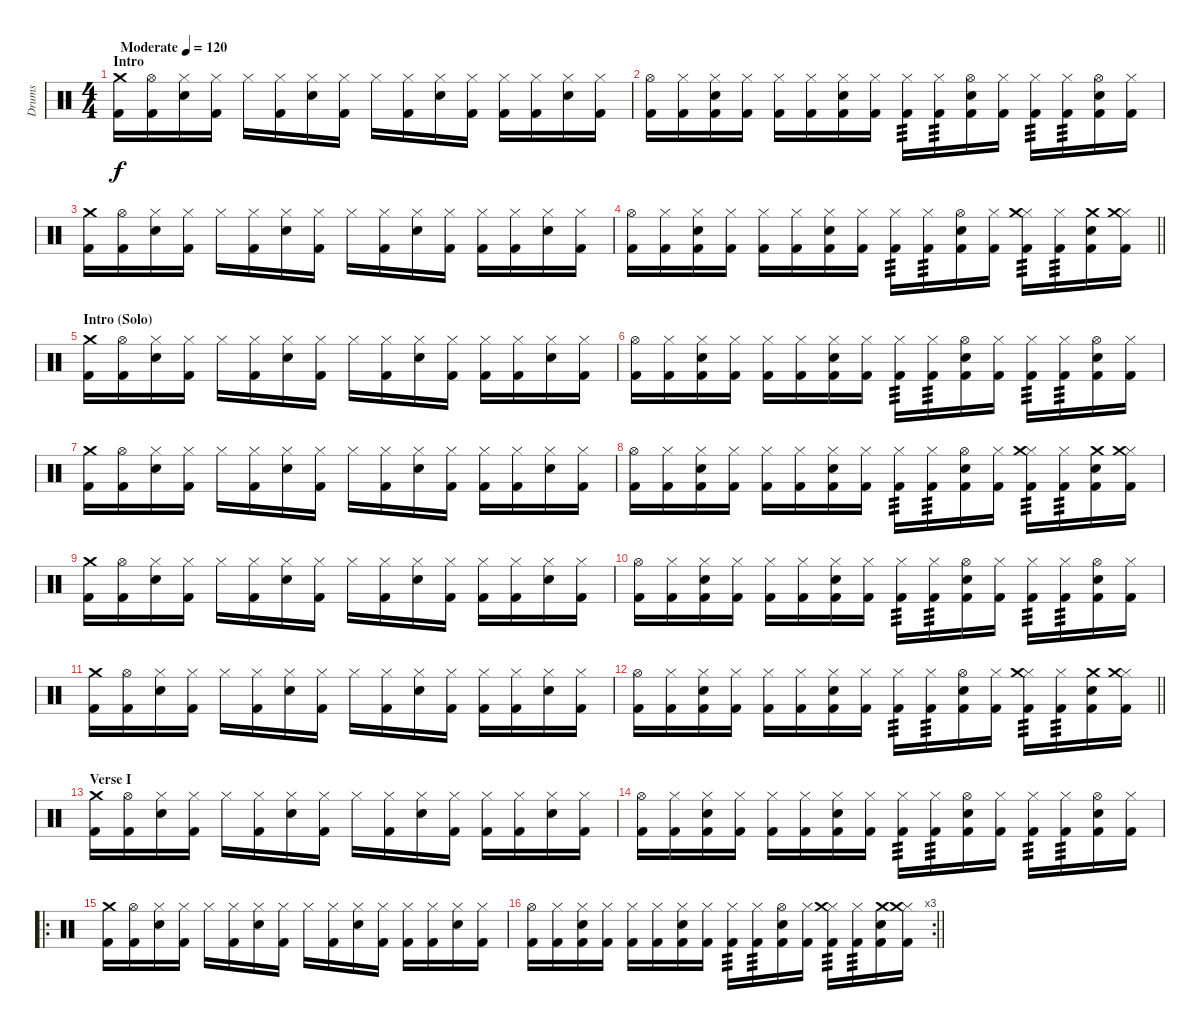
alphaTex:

\track ("Drums" "Drums") {instrument percussion}
\staff {score}
\articulation defaults
\ts (4 4)
\section ("" "Intro")
\tempo (120 "Moderate")
\clef neutral
\ks c
("Kick (hit) 2" "Crash medium (hit)").16{dy f} ("Kick (hit) 2" "Hi-Hat (open)").16 ("Snare (hit) 2" "Hi-Hat (closed)").16 ("Kick (hit) 2" "Hi-Hat (closed)").16 "Hi-Hat (closed)".16 ("Kick (hit) 2" "Hi-Hat (closed)").16 ("Snare (hit) 2" "Hi-Hat (closed)").16 ("Kick (hit) 2" "Hi-Hat (closed)").16 "Hi-Hat (closed)".16 ("Kick (hit) 2" "Hi-Hat (closed)").16 ("Snare (hit) 2" "Hi-Hat (closed)").16 ("Kick (hit) 2" "Hi-Hat (closed)").16 ("Kick (hit) 2" "Hi-Hat (closed)").16 ("Kick (hit) 2" "Hi-Hat (closed)").16 ("Snare (hit) 2" "Hi-Hat (closed)").16 ("Kick (hit) 2" "Hi-Hat (closed)").16 |
("Kick (hit) 2" "Hi-Hat (open)").16 ("Kick (hit) 2" "Hi-Hat (closed)").16 ("Kick (hit) 2" "Snare (hit) 2" "Hi-Hat (closed)").16 ("Kick (hit) 2" "Hi-Hat (closed)").16 ("Kick (hit) 2" "Hi-Hat (closed)").16 ("Kick (hit) 2" "Hi-Hat (closed)").16 ("Kick (hit) 2" "Snare (hit) 2" "Hi-Hat (closed)").16 ("Kick (hit) 2" "Hi-Hat (closed)").16 ("Kick (hit) 2" "Hi-Hat (closed)").16{tp 3} ("Kick (hit) 2" "Hi-Hat (closed)").16{tp 3} ("Kick (hit) 2" "Snare (hit) 2" "Hi-Hat (open)").16 ("Kick (hit) 2" "Hi-Hat (closed)").16 ("Kick (hit) 2" "Hi-Hat (closed)").16{tp 3} ("Kick (hit) 2" "Hi-Hat (closed)").16{tp 3} ("Kick (hit) 2" "Snare (hit) 2" "Hi-Hat (open)").16 ("Kick (hit) 2" "Hi-Hat (closed)").16 |
("Kick (hit) 2" "Crash medium (hit)").16 ("Kick (hit) 2" "Hi-Hat (open)").16 ("Snare (hit) 2" "Hi-Hat (closed)").16 ("Kick (hit) 2" "Hi-Hat (closed)").16 "Hi-Hat (closed)".16 ("Kick (hit) 2" "Hi-Hat (closed)").16 ("Snare (hit) 2" "Hi-Hat (closed)").16 ("Kick (hit) 2" "Hi-Hat (closed)").16 "Hi-Hat (closed)".16 ("Kick (hit) 2" "Hi-Hat (closed)").16 ("Snare (hit) 2" "Hi-Hat (closed)").16 ("Kick (hit) 2" "Hi-Hat (closed)").16 ("Kick (hit) 2" "Hi-Hat (closed)").16 ("Kick (hit) 2" "Hi-Hat (closed)").16 ("Snare (hit) 2" "Hi-Hat (closed)").16 ("Kick (hit) 2" "Hi-Hat (closed)").16 |
\barLineRight lightlight
("Kick (hit) 2" "Hi-Hat (open)").16 ("Kick (hit) 2" "Hi-Hat (closed)").16 ("Kick (hit) 2" "Snare (hit) 2" "Hi-Hat (closed)").16 ("Kick (hit) 2" "Hi-Hat (closed)").16 ("Kick (hit) 2" "Hi-Hat (closed)").16 ("Kick (hit) 2" "Hi-Hat (closed)").16 ("Kick (hit) 2" "Snare (hit) 2" "Hi-Hat (closed)").16 ("Kick (hit) 2" "Hi-Hat (closed)").16 ("Kick (hit) 2" "Hi-Hat (closed)").16{tp 3} ("Kick (hit) 2" "Hi-Hat (closed)").16{tp 3} ("Kick (hit) 2" "Snare (hit) 2" "Hi-Hat (open)").16 ("Kick (hit) 2" "Hi-Hat (closed)").16 ("Kick (hit) 2" "Hi-Hat (closed)" "Crash medium (hit)").16{tp 3} ("Kick (hit) 2" "Hi-Hat (closed)").16{tp 3} ("Kick (hit) 2" "Snare (hit) 2" "Crash medium (hit)").16 ("Kick (hit) 2" "Hi-Hat (closed)" "Crash medium (hit)").16 |
\section ("" "Intro (Solo)")
("Kick (hit) 2" "Crash medium (hit)").16 ("Kick (hit) 2" "Hi-Hat (open)").16 ("Snare (hit) 2" "Hi-Hat (closed)").16 ("Kick (hit) 2" "Hi-Hat (closed)").16 "Hi-Hat (closed)".16 ("Kick (hit) 2" "Hi-Hat (closed)").16 ("Snare (hit) 2" "Hi-Hat (closed)").16 ("Kick (hit) 2" "Hi-Hat (closed)").16 "Hi-Hat (closed)".16 ("Kick (hit) 2" "Hi-Hat (closed)").16 ("Snare (hit) 2" "Hi-Hat (closed)").16 ("Kick (hit) 2" "Hi-Hat (closed)").16 ("Kick (hit) 2" "Hi-Hat (closed)").16 ("Kick (hit) 2" "Hi-Hat (closed)").16 ("Snare (hit) 2" "Hi-Hat (closed)").16 ("Kick (hit) 2" "Hi-Hat (closed)").16 |
("Kick (hit) 2" "Hi-Hat (open)").16 ("Kick (hit) 2" "Hi-Hat (closed)").16 ("Kick (hit) 2" "Snare (hit) 2" "Hi-Hat (closed)").16 ("Kick (hit) 2" "Hi-Hat (closed)").16 ("Kick (hit) 2" "Hi-Hat (closed)").16 ("Kick (hit) 2" "Hi-Hat (closed)").16 ("Kick (hit) 2" "Snare (hit) 2" "Hi-Hat (closed)").16 ("Kick (hit) 2" "Hi-Hat (closed)").16 ("Kick (hit) 2" "Hi-Hat (closed)").16{tp 3} ("Kick (hit) 2" "Hi-Hat (closed)").16{tp 3} ("Kick (hit) 2" "Snare (hit) 2" "Hi-Hat (open)").16 ("Kick (hit) 2" "Hi-Hat (closed)").16 ("Kick (hit) 2" "Hi-Hat (closed)").16{tp 3} ("Kick (hit) 2" "Hi-Hat (closed)").16{tp 3} ("Kick (hit) 2" "Snare (hit) 2" "Hi-Hat (open)").16 ("Kick (hit) 2" "Hi-Hat (closed)").16 |
("Kick (hit) 2" "Crash medium (hit)").16 ("Kick (hit) 2" "Hi-Hat (open)").16 ("Snare (hit) 2" "Hi-Hat (closed)").16 ("Kick (hit) 2" "Hi-Hat (closed)").16 "Hi-Hat (closed)".16 ("Kick (hit) 2" "Hi-Hat (closed)").16 ("Snare (hit) 2" "Hi-Hat (closed)").16 ("Kick (hit) 2" "Hi-Hat (closed)").16 "Hi-Hat (closed)".16 ("Kick (hit) 2" "Hi-Hat (closed)").16 ("Snare (hit) 2" "Hi-Hat (closed)").16 ("Kick (hit) 2" "Hi-Hat (closed)").16 ("Kick (hit) 2" "Hi-Hat (closed)").16 ("Kick (hit) 2" "Hi-Hat (closed)").16 ("Snare (hit) 2" "Hi-Hat (closed)").16 ("Kick (hit) 2" "Hi-Hat (closed)").16 |
("Kick (hit) 2" "Hi-Hat (open)").16 ("Kick (hit) 2" "Hi-Hat (closed)").16 ("Kick (hit) 2" "Snare (hit) 2" "Hi-Hat (closed)").16 ("Kick (hit) 2" "Hi-Hat (closed)").16 ("Kick (hit) 2" "Hi-Hat (closed)").16 ("Kick (hit) 2" "Hi-Hat (closed)").16 ("Kick (hit) 2" "Snare (hit) 2" "Hi-Hat (closed)").16 ("Kick (hit) 2" "Hi-Hat (closed)").16 ("Kick (hit) 2" "Hi-Hat (closed)").16{tp 3} ("Kick (hit) 2" "Hi-Hat (closed)").16{tp 3} ("Kick (hit) 2" "Snare (hit) 2" "Hi-Hat (open)").16 ("Kick (hit) 2" "Hi-Hat (closed)").16 ("Kick (hit) 2" "Hi-Hat (closed)" "Crash medium (hit)").16{tp 3} ("Kick (hit) 2" "Hi-Hat (closed)").16{tp 3} ("Kick (hit) 2" "Snare (hit) 2" "Crash medium (hit)").16 ("Kick (hit) 2" "Hi-Hat (closed)" "Crash medium (hit)").16 |
("Kick (hit) 2" "Crash medium (hit)").16 ("Kick (hit) 2" "Hi-Hat (open)").16 ("Snare (hit) 2" "Hi-Hat (closed)").16 ("Kick (hit) 2" "Hi-Hat (closed)").16 "Hi-Hat (closed)".16 ("Kick (hit) 2" "Hi-Hat (closed)").16 ("Snare (hit) 2" "Hi-Hat (closed)").16 ("Kick (hit) 2" "Hi-Hat (closed)").16 "Hi-Hat (closed)".16 ("Kick (hit) 2" "Hi-Hat (closed)").16 ("Snare (hit) 2" "Hi-Hat (closed)").16 ("Kick (hit) 2" "Hi-Hat (closed)").16 ("Kick (hit) 2" "Hi-Hat (closed)").16 ("Kick (hit) 2" "Hi-Hat (closed)").16 ("Snare (hit) 2" "Hi-Hat (closed)").16 ("Kick (hit) 2" "Hi-Hat (closed)").16 |
("Kick (hit) 2" "Hi-Hat (open)").16 ("Kick (hit) 2" "Hi-Hat (closed)").16 ("Kick (hit) 2" "Snare (hit) 2" "Hi-Hat (closed)").16 ("Kick (hit) 2" "Hi-Hat (closed)").16 ("Kick (hit) 2" "Hi-Hat (closed)").16 ("Kick (hit) 2" "Hi-Hat (closed)").16 ("Kick (hit) 2" "Snare (hit) 2" "Hi-Hat (closed)").16 ("Kick (hit) 2" "Hi-Hat (closed)").16 ("Kick (hit) 2" "Hi-Hat (closed)").16{tp 3} ("Kick (hit) 2" "Hi-Hat (closed)").16{tp 3} ("Kick (hit) 2" "Snare (hit) 2" "Hi-Hat (open)").16 ("Kick (hit) 2" "Hi-Hat (closed)").16 ("Kick (hit) 2" "Hi-Hat (closed)").16{tp 3} ("Kick (hit) 2" "Hi-Hat (closed)").16{tp 3} ("Kick (hit) 2" "Snare (hit) 2" "Hi-Hat (open)").16 ("Kick (hit) 2" "Hi-Hat (closed)").16 |
("Kick (hit) 2" "Crash medium (hit)").16 ("Kick (hit) 2" "Hi-Hat (open)").16 ("Snare (hit) 2" "Hi-Hat (closed)").16 ("Kick (hit) 2" "Hi-Hat (closed)").16 "Hi-Hat (closed)".16 ("Kick (hit) 2" "Hi-Hat (closed)").16 ("Snare (hit) 2" "Hi-Hat (closed)").16 ("Kick (hit) 2" "Hi-Hat (closed)").16 "Hi-Hat (closed)".16 ("Kick (hit) 2" "Hi-Hat (closed)").16 ("Snare (hit) 2" "Hi-Hat (closed)").16 ("Kick (hit) 2" "Hi-Hat (closed)").16 ("Kick (hit) 2" "Hi-Hat (closed)").16 ("Kick (hit) 2" "Hi-Hat (closed)").16 ("Snare (hit) 2" "Hi-Hat (closed)").16 ("Kick (hit) 2" "Hi-Hat (closed)").16 |
\barLineRight lightlight
("Kick (hit) 2" "Hi-Hat (open)").16 ("Kick (hit) 2" "Hi-Hat (closed)").16 ("Kick (hit) 2" "Snare (hit) 2" "Hi-Hat (closed)").16 ("Kick (hit) 2" "Hi-Hat (closed)").16 ("Kick (hit) 2" "Hi-Hat (closed)").16 ("Kick (hit) 2" "Hi-Hat (closed)").16 ("Kick (hit) 2" "Snare (hit) 2" "Hi-Hat (closed)").16 ("Kick (hit) 2" "Hi-Hat (closed)").16 ("Kick (hit) 2" "Hi-Hat (closed)").16{tp 3} ("Kick (hit) 2" "Hi-Hat (closed)").16{tp 3} ("Kick (hit) 2" "Snare (hit) 2" "Hi-Hat (open)").16 ("Kick (hit) 2" "Hi-Hat (closed)").16 ("Kick (hit) 2" "Hi-Hat (closed)" "Crash medium (hit)").16{tp 3} ("Kick (hit) 2" "Hi-Hat (closed)").16{tp 3} ("Kick (hit) 2" "Snare (hit) 2" "Crash medium (hit)").16 ("Kick (hit) 2" "Hi-Hat (closed)" "Crash medium (hit)").16 |
\section ("" "Verse I")
("Kick (hit) 2" "Crash medium (hit)").16 ("Kick (hit) 2" "Hi-Hat (open)").16 ("Snare (hit) 2" "Hi-Hat (closed)").16 ("Kick (hit) 2" "Hi-Hat (closed)").16 "Hi-Hat (closed)".16 ("Kick (hit) 2" "Hi-Hat (closed)").16 ("Snare (hit) 2" "Hi-Hat (closed)").16 ("Kick (hit) 2" "Hi-Hat (closed)").16 "Hi-Hat (closed)".16 ("Kick (hit) 2" "Hi-Hat (closed)").16 ("Snare (hit) 2" "Hi-Hat (closed)").16 ("Kick (hit) 2" "Hi-Hat (closed)").16 ("Kick (hit) 2" "Hi-Hat (closed)").16 ("Kick (hit) 2" "Hi-Hat (closed)").16 ("Snare (hit) 2" "Hi-Hat (closed)").16 ("Kick (hit) 2" "Hi-Hat (closed)").16 |
("Kick (hit) 2" "Hi-Hat (open)").16 ("Kick (hit) 2" "Hi-Hat (closed)").16 ("Kick (hit) 2" "Snare (hit) 2" "Hi-Hat (closed)").16 ("Kick (hit) 2" "Hi-Hat (closed)").16 ("Kick (hit) 2" "Hi-Hat (closed)").16 ("Kick (hit) 2" "Hi-Hat (closed)").16 ("Kick (hit) 2" "Snare (hit) 2" "Hi-Hat (closed)").16 ("Kick (hit) 2" "Hi-Hat (closed)").16 ("Kick (hit) 2" "Hi-Hat (closed)").16{tp 3} ("Kick (hit) 2" "Hi-Hat (closed)").16{tp 3} ("Kick (hit) 2" "Snare (hit) 2" "Hi-Hat (open)").16 ("Kick (hit) 2" "Hi-Hat (closed)").16 ("Kick (hit) 2" "Hi-Hat (closed)").16{tp 3} ("Kick (hit) 2" "Hi-Hat (closed)").16{tp 3} ("Kick (hit) 2" "Snare (hit) 2" "Hi-Hat (open)").16 ("Kick (hit) 2" "Hi-Hat (closed)").16 |
\ro
("Kick (hit) 2" "Crash medium (hit)").16 ("Kick (hit) 2" "Hi-Hat (open)").16 ("Snare (hit) 2" "Hi-Hat (closed)").16 ("Kick (hit) 2" "Hi-Hat (closed)").16 "Hi-Hat (closed)".16 ("Kick (hit) 2" "Hi-Hat (closed)").16 ("Snare (hit) 2" "Hi-Hat (closed)").16 ("Kick (hit) 2" "Hi-Hat (closed)").16 "Hi-Hat (closed)".16 ("Kick (hit) 2" "Hi-Hat (closed)").16 ("Snare (hit) 2" "Hi-Hat (closed)").16 ("Kick (hit) 2" "Hi-Hat (closed)").16 ("Kick (hit) 2" "Hi-Hat (closed)").16 ("Kick (hit) 2" "Hi-Hat (closed)").16 ("Snare (hit) 2" "Hi-Hat (closed)").16 ("Kick (hit) 2" "Hi-Hat (closed)").16 |
\rc 3
\barLineRight lightlight
("Kick (hit) 2" "Hi-Hat (open)").16 ("Kick (hit) 2" "Hi-Hat (closed)").16 ("Kick (hit) 2" "Snare (hit) 2" "Hi-Hat (closed)").16 ("Kick (hit) 2" "Hi-Hat (closed)").16 ("Kick (hit) 2" "Hi-Hat (closed)").16 ("Kick (hit) 2" "Hi-Hat (closed)").16 ("Kick (hit) 2" "Snare (hit) 2" "Hi-Hat (closed)").16 ("Kick (hit) 2" "Hi-Hat (closed)").16 ("Kick (hit) 2" "Hi-Hat (closed)").16{tp 3} ("Kick (hit) 2" "Hi-Hat (closed)").16{tp 3} ("Kick (hit) 2" "Snare (hit) 2" "Hi-Hat (open)").16 ("Kick (hit) 2" "Hi-Hat (closed)").16 ("Kick (hit) 2" "Hi-Hat (closed)" "Crash medium (hit)").16{tp 3} ("Kick (hit) 2" "Hi-Hat (closed)").16{tp 3} ("Kick (hit) 2" "Snare (hit) 2" "Crash medium (hit)").16 ("Kick (hit) 2" "Hi-Hat (closed)" "Crash medium (hit)").16
